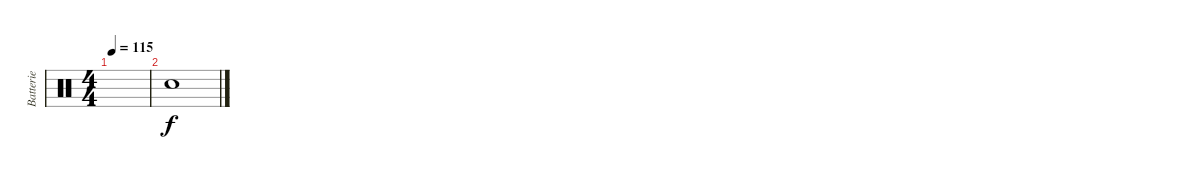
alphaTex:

\track ("Batterie" "Batterie") {instrument percussion}
\staff {score}
\articulation defaults
\ts (4 4)
\tempo 115
\clef neutral
\ks c
|
"Snare (hit)"{t}.1
